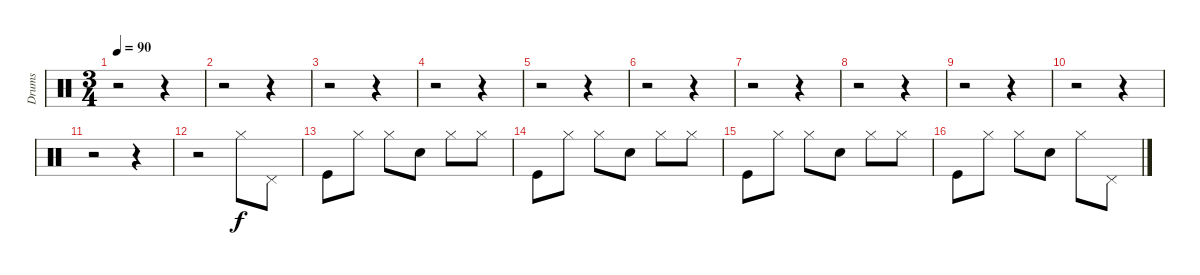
\track ("Drums" "Drums") {instrument percussion}
\staff {score}
\articulation defaults
\ts (3 4)
\tempo 90
\clef neutral
\ks c
r.2{dy f} r.4 |
r.2 r.4 |
r.2 r.4 |
r.2 r.4 |
r.2 r.4 |
r.2 r.4 |
r.2 r.4 |
r.2 r.4 |
r.2 r.4 |
r.2 r.4 |
r.2 r.4 |
r.2 "Hi-Hat (closed)".8 "Pedal Hi-Hat (hit)".8 |
"Kick (hit)".8 "Hi-Hat (closed)".8 "Hi-Hat (closed)".8 "Snare (hit) 2".8 "Hi-Hat (closed)".8 "Hi-Hat (closed)".8 |
"Kick (hit)".8 "Hi-Hat (closed)".8 "Hi-Hat (closed)".8 "Snare (hit) 2".8 "Hi-Hat (closed)".8 "Hi-Hat (closed)".8 |
"Kick (hit)".8 "Hi-Hat (closed)".8 "Hi-Hat (closed)".8 "Snare (hit) 2".8 "Hi-Hat (closed)".8 "Hi-Hat (closed)".8 |
"Kick (hit)".8 "Hi-Hat (closed)".8 "Hi-Hat (closed)".8 "Snare (hit) 2".8 "Hi-Hat (closed)".8 "Pedal Hi-Hat (hit)".8
